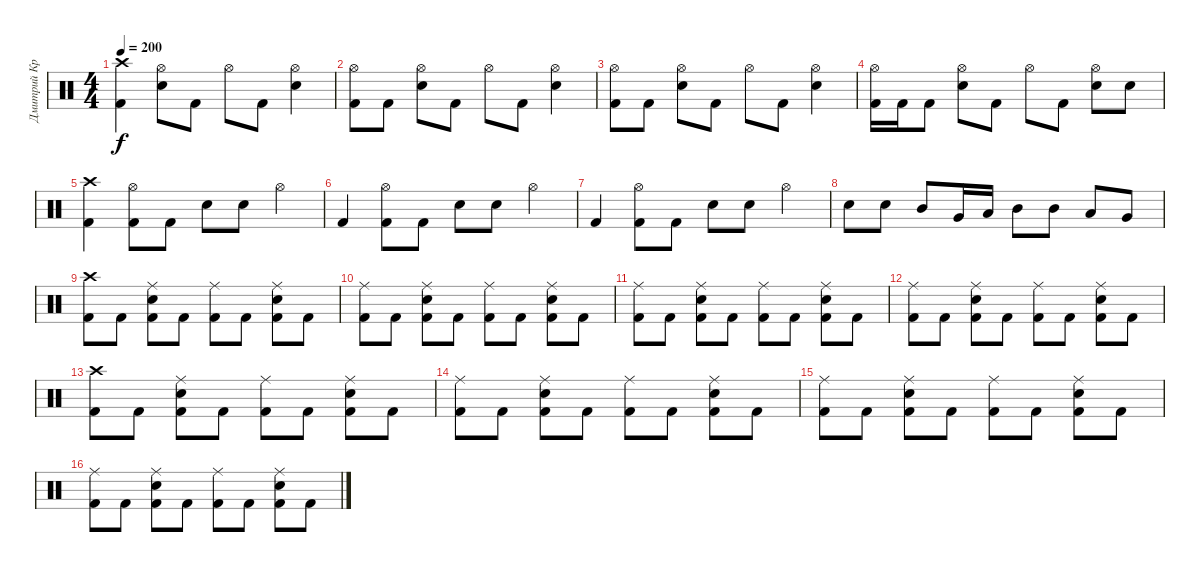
\track ("Дмитрий Кривенков" "Дмитрий Кр") {instrument percussion}
\staff {score}
\articulation defaults
\ts (4 4)
\tempo 200
\clef neutral
\ks c
("Crash high (hit)" "Kick (hit) 2").4{dy f} ("Hi-Hat (open)" "Electric Snare (hit)").8 "Kick (hit) 2".8 "Hi-Hat (open)".8 "Kick (hit) 2".8 ("Hi-Hat (open)" "Electric Snare (hit)").4 |
("Hi-Hat (open)" "Kick (hit) 2").8 "Kick (hit) 2".8 ("Hi-Hat (open)" "Electric Snare (hit)").8 "Kick (hit) 2".8 "Hi-Hat (open)".8 "Kick (hit) 2".8 ("Hi-Hat (open)" "Electric Snare (hit)").4 |
("Hi-Hat (open)" "Kick (hit) 2").8 "Kick (hit) 2".8 ("Hi-Hat (open)" "Electric Snare (hit)").8 "Kick (hit) 2".8 "Hi-Hat (open)".8 "Kick (hit) 2".8 ("Hi-Hat (open)" "Electric Snare (hit)").4 |
("Hi-Hat (open)" "Kick (hit) 2").16 "Kick (hit) 2".16 "Kick (hit) 2".8 ("Hi-Hat (open)" "Electric Snare (hit)").8 "Kick (hit) 2".8 "Hi-Hat (open)".8 "Kick (hit) 2".8 ("Hi-Hat (open)" "Electric Snare (hit)").8 "Electric Snare (hit)".8 |
("Crash high (hit)" "Kick (hit) 2").4 ("Hi-Hat (open)" "Kick (hit) 2").8 "Kick (hit) 2".8 "Electric Snare (hit)".8 "Electric Snare (hit)".8 "Hi-Hat (open)".4 |
"Kick (hit) 2".4 ("Hi-Hat (open)" "Kick (hit) 2").8 "Kick (hit) 2".8 "Electric Snare (hit)".8 "Electric Snare (hit)".8 "Hi-Hat (open)".4 |
"Kick (hit) 2".4 ("Hi-Hat (open)" "Kick (hit) 2").8 "Kick (hit) 2".8 "Electric Snare (hit)".8 "Electric Snare (hit)".8 "Hi-Hat (open)".4 |
"Electric Snare (hit)".8 "Electric Snare (hit)".8 "Mid Tom (hit)".8 "Very Low Tom (hit)".16 "Low Tom (hit)".16 "Mid Tom (hit)".8 "Mid Tom (hit)".8 "Low Tom (hit)".8 "Very Low Tom (hit)".8 |
("Crash high (hit)" "Kick (hit) 2").8 "Kick (hit) 2".8 ("Ride (middle)" "Electric Snare (hit)" "Kick (hit) 2").8 "Kick (hit) 2".8 ("Ride (middle)" "Kick (hit) 2").8 "Kick (hit) 2".8 ("Ride (middle)" "Electric Snare (hit)" "Kick (hit) 2").8 "Kick (hit) 2".8 |
("Ride (middle)" "Kick (hit) 2").8 "Kick (hit) 2".8 ("Ride (middle)" "Electric Snare (hit)" "Kick (hit) 2").8 "Kick (hit) 2".8 ("Ride (middle)" "Kick (hit) 2").8 "Kick (hit) 2".8 ("Ride (middle)" "Electric Snare (hit)" "Kick (hit) 2").8 "Kick (hit) 2".8 |
("Ride (middle)" "Kick (hit) 2").8 "Kick (hit) 2".8 ("Ride (middle)" "Electric Snare (hit)" "Kick (hit) 2").8 "Kick (hit) 2".8 ("Ride (middle)" "Kick (hit) 2").8 "Kick (hit) 2".8 ("Ride (middle)" "Electric Snare (hit)" "Kick (hit) 2").8 "Kick (hit) 2".8 |
("Ride (middle)" "Kick (hit) 2").8 "Kick (hit) 2".8 ("Ride (middle)" "Electric Snare (hit)" "Kick (hit) 2").8 "Kick (hit) 2".8 ("Ride (middle)" "Kick (hit) 2").8 "Kick (hit) 2".8 ("Ride (middle)" "Electric Snare (hit)" "Kick (hit) 2").8 "Kick (hit) 2".8 |
("Crash high (hit)" "Kick (hit) 2").8 "Kick (hit) 2".8 ("Ride (middle)" "Electric Snare (hit)" "Kick (hit) 2").8 "Kick (hit) 2".8 ("Ride (middle)" "Kick (hit) 2").8 "Kick (hit) 2".8 ("Ride (middle)" "Electric Snare (hit)" "Kick (hit) 2").8 "Kick (hit) 2".8 |
("Ride (middle)" "Kick (hit) 2").8 "Kick (hit) 2".8 ("Ride (middle)" "Electric Snare (hit)" "Kick (hit) 2").8 "Kick (hit) 2".8 ("Ride (middle)" "Kick (hit) 2").8 "Kick (hit) 2".8 ("Ride (middle)" "Electric Snare (hit)" "Kick (hit) 2").8 "Kick (hit) 2".8 |
("Ride (middle)" "Kick (hit) 2").8 "Kick (hit) 2".8 ("Ride (middle)" "Electric Snare (hit)" "Kick (hit) 2").8 "Kick (hit) 2".8 ("Ride (middle)" "Kick (hit) 2").8 "Kick (hit) 2".8 ("Ride (middle)" "Electric Snare (hit)" "Kick (hit) 2").8 "Kick (hit) 2".8 |
("Ride (middle)" "Kick (hit) 2").8 "Kick (hit) 2".8 ("Ride (middle)" "Electric Snare (hit)" "Kick (hit) 2").8 "Kick (hit) 2".8 ("Ride (middle)" "Kick (hit) 2").8 "Kick (hit) 2".8 ("Ride (middle)" "Electric Snare (hit)" "Kick (hit) 2").8 "Kick (hit) 2".8
